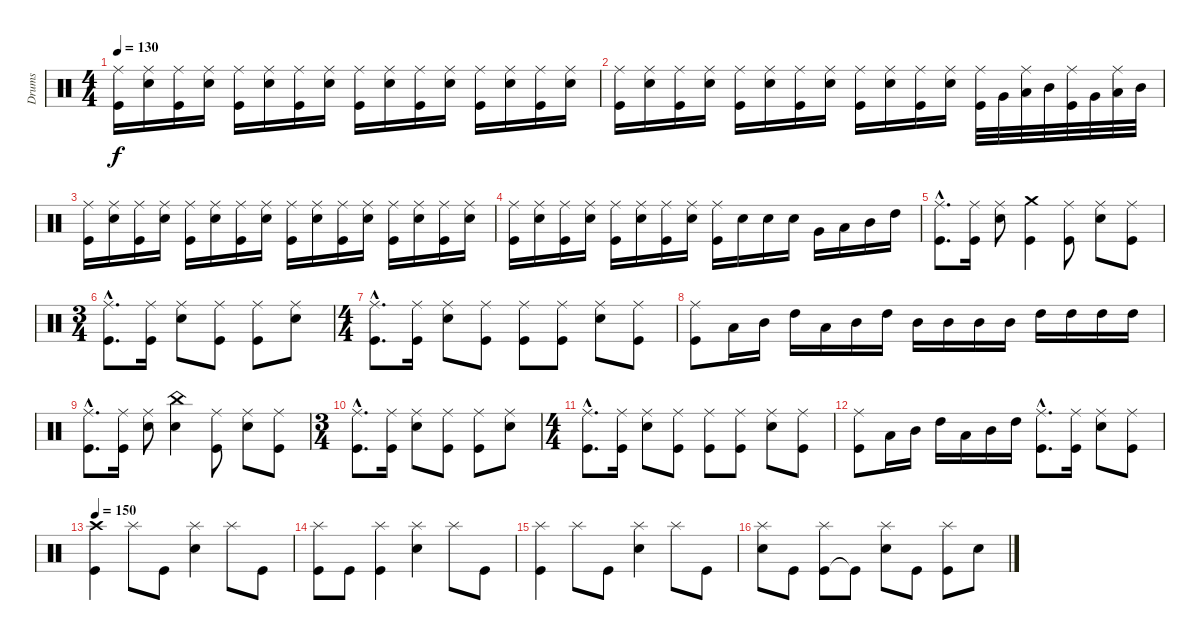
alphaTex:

\track ("Drums" "Drums") {instrument percussion}
\staff {score}
\articulation defaults
\ts (4 4)
\tempo 130
\clef neutral
\ks c
("Kick (hit)" "Ride (middle)").16{dy f} ("Electric Snare (hit)" "Ride (middle)").16 ("Kick (hit)" "Ride (middle)").16 ("Electric Snare (hit)" "Ride (middle)").16 ("Kick (hit)" "Ride (middle)").16 ("Electric Snare (hit)" "Ride (middle)").16 ("Kick (hit)" "Ride (middle)").16 ("Electric Snare (hit)" "Ride (middle)").16 ("Kick (hit)" "Ride (middle)").16 ("Electric Snare (hit)" "Ride (middle)").16 ("Kick (hit)" "Ride (middle)").16 ("Electric Snare (hit)" "Ride (middle)").16 ("Kick (hit)" "Ride (middle)").16 ("Electric Snare (hit)" "Ride (middle)").16 ("Kick (hit)" "Ride (middle)").16 ("Electric Snare (hit)" "Ride (middle)").16 |
("Kick (hit)" "Ride (middle)").16 ("Electric Snare (hit)" "Ride (middle)").16 ("Kick (hit)" "Ride (middle)").16 ("Electric Snare (hit)" "Ride (middle)").16 ("Kick (hit)" "Ride (middle)").16 ("Electric Snare (hit)" "Ride (middle)").16 ("Kick (hit)" "Ride (middle)").16 ("Electric Snare (hit)" "Ride (middle)").16 ("Kick (hit)" "Ride (middle)").16 ("Electric Snare (hit)" "Ride (middle)").16 ("Kick (hit)" "Ride (middle)").16 ("Electric Snare (hit)" "Ride (middle)").16 ("Kick (hit)" "Ride (middle)").32 "Very Low Tom (hit)".32 ("Low Tom (hit)" "Ride (middle)").32 "Mid Tom (hit)".32 ("Kick (hit)" "Ride (middle)").32 "Very Low Tom (hit)".32 ("Low Tom (hit)" "Ride (middle)").32 "Mid Tom (hit)".32 |
("Kick (hit)" "Ride (middle)").16 ("Electric Snare (hit)" "Ride (middle)").16 ("Kick (hit)" "Ride (middle)").16 ("Electric Snare (hit)" "Ride (middle)").16 ("Kick (hit)" "Ride (middle)").16 ("Electric Snare (hit)" "Ride (middle)").16 ("Kick (hit)" "Ride (middle)").16 ("Electric Snare (hit)" "Ride (middle)").16 ("Kick (hit)" "Ride (middle)").16 ("Electric Snare (hit)" "Ride (middle)").16 ("Kick (hit)" "Ride (middle)").16 ("Electric Snare (hit)" "Ride (middle)").16 ("Kick (hit)" "Ride (middle)").16 ("Electric Snare (hit)" "Ride (middle)").16 ("Kick (hit)" "Ride (middle)").16 ("Electric Snare (hit)" "Ride (middle)").16 |
("Kick (hit)" "Ride (middle)").16 ("Electric Snare (hit)" "Ride (middle)").16 ("Kick (hit)" "Ride (middle)").16 ("Electric Snare (hit)" "Ride (middle)").16 ("Kick (hit)" "Ride (middle)").16 ("Electric Snare (hit)" "Ride (middle)").16 ("Kick (hit)" "Ride (middle)").16 ("Electric Snare (hit)" "Ride (middle)").16 ("Kick (hit)" "Ride (middle)").16 "Electric Snare (hit)".16 "Electric Snare (hit)".16 "Electric Snare (hit)".16 "Very Low Tom (hit)".16 "Low Tom (hit)".16 "Mid Tom (hit)".16 "High Tom (hit)".16 |
("Kick (hit)"{hac} "Ride (middle)"{hac}).8{d} ("Kick (hit)" "Ride (middle)").16 ("Electric Snare (hit)" "Ride (middle)").8 ("Kick (hit)" "Crash medium (hit)").4 ("Kick (hit)" "Ride (middle)").8 ("Electric Snare (hit)" "Ride (middle)").8 ("Kick (hit)" "Ride (middle)").8 |
\ts (3 4)
("Kick (hit)"{hac} "Ride (middle)"{hac}).8{d} ("Kick (hit)" "Ride (middle)").16 ("Electric Snare (hit)" "Ride (middle)").8 ("Kick (hit)" "Ride (middle)").8 ("Kick (hit)" "Ride (middle)").8 ("Electric Snare (hit)" "Ride (middle)").8 |
\ts (4 4)
("Kick (hit)"{hac} "Ride (middle)"{hac}).8{d} ("Kick (hit)" "Ride (middle)").16 ("Electric Snare (hit)" "Ride (middle)").8 ("Kick (hit)" "Ride (middle)").8 ("Kick (hit)" "Ride (middle)").8 ("Kick (hit)" "Ride (middle)").8 ("Electric Snare (hit)" "Ride (middle)").8 ("Kick (hit)" "Ride (middle)").8 |
("Kick (hit)" "Ride (middle)").8 "Low Tom (hit)".16 "Mid Tom (hit)".16 "High Tom (hit)".16 "Low Tom (hit)".16 "Mid Tom (hit)".16 "High Tom (hit)".16 "Mid Tom (hit)".16 "Mid Tom (hit)".16 "Mid Tom (hit)".16 "Mid Tom (hit)".16 "High Tom (hit)".16 "High Tom (hit)".16 "High Tom (hit)".16 "High Tom (hit)".16 |
("Kick (hit)"{hac} "Ride (middle)"{hac}).8{d} ("Kick (hit)" "Ride (middle)").16 ("Electric Snare (hit)" "Ride (middle)").8 ("Electric Snare (hit)" "China (hit)").4 ("Kick (hit)" "Ride (middle)").8 ("Electric Snare (hit)" "Ride (middle)").8 ("Kick (hit)" "Ride (middle)").8 |
\ts (3 4)
("Kick (hit)"{hac} "Ride (middle)"{hac}).8{d} ("Kick (hit)" "Ride (middle)").16 ("Electric Snare (hit)" "Ride (middle)").8 ("Kick (hit)" "Ride (middle)").8 ("Kick (hit)" "Ride (middle)").8 ("Electric Snare (hit)" "Ride (middle)").8 |
\ts (4 4)
("Kick (hit)"{hac} "Ride (middle)"{hac}).8{d} ("Kick (hit)" "Ride (middle)").16 ("Electric Snare (hit)" "Ride (middle)").8 ("Kick (hit)" "Ride (middle)").8 ("Kick (hit)" "Ride (middle)").8 ("Kick (hit)" "Ride (middle)").8 ("Electric Snare (hit)" "Ride (middle)").8 ("Kick (hit)" "Ride (middle)").8 |
("Kick (hit)" "Ride (middle)").8 "Low Tom (hit)".16 "Mid Tom (hit)".16 "High Tom (hit)".16 "Low Tom (hit)".16 "Mid Tom (hit)".16 "High Tom (hit)".16 ("Kick (hit)"{hac} "Ride (middle)"{hac}).8{d} ("Kick (hit)" "Ride (middle)").16 ("Electric Snare (hit)" "Ride (middle)").8 ("Kick (hit)" "Ride (middle)").8 |
\tempo 150
("Kick (hit)" "Crash high (hit)").4 "Splash (hit)".8 "Kick (hit)".8 ("Electric Snare (hit)" "Splash (hit)").4 "Splash (hit)".8 "Kick (hit)".8 |
("Kick (hit)" "Splash (hit)").8 "Kick (hit)".8 ("Kick (hit)" "Splash (hit)").4 ("Electric Snare (hit)" "Splash (hit)").4 "Splash (hit)".8 "Kick (hit)".8 |
("Kick (hit)" "Splash (hit)").4 "Splash (hit)".8 "Kick (hit)".8 ("Electric Snare (hit)" "Splash (hit)").4 "Splash (hit)".8 "Kick (hit)".8 |
("Electric Snare (hit)" "Splash (hit)").8 "Kick (hit)".8 ("Kick (hit)" "Splash (hit)").8 "Kick (hit)"{t}.8 ("Electric Snare (hit)" "Splash (hit)").8 "Kick (hit)".8 ("Kick (hit)" "Splash (hit)").8 "Electric Snare (hit)".8
